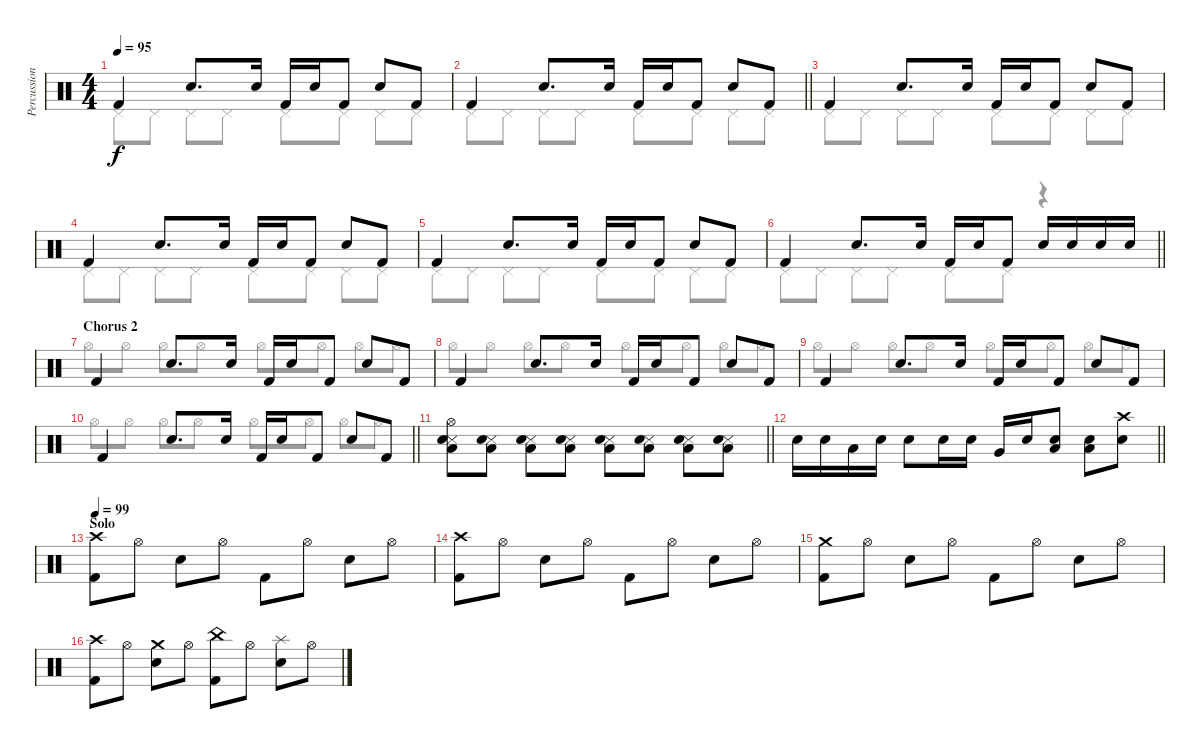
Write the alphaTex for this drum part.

\track ("Percussion" "Percussion") {instrument percussion}
\staff {score}
\articulation defaults
\voice
\ts (4 4)
\tempo 95
\clef neutral
\ks c "Kick (hit) 2".4{dy f} "Snare (hit) 2".8{d} "Snare (hit) 2".16 "Kick (hit) 2".16 "Snare (hit) 2".16 "Kick (hit) 2".8 "Snare (hit) 2".8 "Kick (hit) 2".8
|
\barLineRight lightlight "Kick (hit) 2".4 "Snare (hit) 2".8{d} "Snare (hit) 2".16 "Kick (hit) 2".16 "Snare (hit) 2".16 "Kick (hit) 2".8 "Snare (hit) 2".8 "Kick (hit) 2".8
|
"Kick (hit) 2".4 "Snare (hit) 2".8{d} "Snare (hit) 2".16 "Kick (hit) 2".16 "Snare (hit) 2".16 "Kick (hit) 2".8 "Snare (hit) 2".8 "Kick (hit) 2".8 |
"Kick (hit) 2".4 "Snare (hit) 2".8{d} "Snare (hit) 2".16 "Kick (hit) 2".16 "Snare (hit) 2".16 "Kick (hit) 2".8 "Snare (hit) 2".8 "Kick (hit) 2".8 |
"Kick (hit) 2".4 "Snare (hit) 2".8{d} "Snare (hit) 2".16 "Kick (hit) 2".16 "Snare (hit) 2".16 "Kick (hit) 2".8 "Snare (hit) 2".8 "Kick (hit) 2".8 |
\barLineRight lightlight "Kick (hit) 2".4 "Snare (hit) 2".8{d} "Snare (hit) 2".16 "Kick (hit) 2".16 "Snare (hit) 2".16 "Kick (hit) 2".8 "Snare (hit) 2".16 "Snare (hit) 2".16 "Snare (hit) 2".16 "Snare (hit) 2".16
|
\section ("" "Chorus 2")
"Kick (hit) 2".4 "Snare (hit) 2".8{d} "Snare (hit) 2".16 "Kick (hit) 2".16 "Snare (hit) 2".16 "Kick (hit) 2".8 "Snare (hit) 2".8 "Kick (hit) 2".8 |
"Kick (hit) 2".4 "Snare (hit) 2".8{d} "Snare (hit) 2".16 "Kick (hit) 2".16 "Snare (hit) 2".16 "Kick (hit) 2".8 "Snare (hit) 2".8 "Kick (hit) 2".8 |
"Kick (hit) 2".4 "Snare (hit) 2".8{d} "Snare (hit) 2".16 "Kick (hit) 2".16 "Snare (hit) 2".16 "Kick (hit) 2".8 "Snare (hit) 2".8 "Kick (hit) 2".8 |
\barLineRight lightlight "Kick (hit) 2".4 "Snare (hit) 2".8{d} "Snare (hit) 2".16 "Kick (hit) 2".16 "Snare (hit) 2".16 "Kick (hit) 2".8 "Snare (hit) 2".8 "Kick (hit) 2".8
|
\barLineRight lightlight
("Snare (side stick) 3" "Snare (hit) 2" "Low Floor Tom (hit)" "Hi-Hat (open)").8 ("Snare (side stick) 3" "Snare (hit) 2" "Low Floor Tom (hit)").8 ("Snare (side stick) 3" "Snare (hit) 2" "Low Floor Tom (hit)").8 ("Snare (side stick) 3" "Snare (hit) 2" "Low Floor Tom (hit)").8 ("Snare (side stick) 3" "Snare (hit) 2" "Low Floor Tom (hit)").8 ("Snare (side stick) 3" "Snare (hit) 2" "Low Floor Tom (hit)").8 ("Snare (side stick) 3" "Snare (hit) 2" "Low Floor Tom (hit)").8 ("Snare (side stick) 3" "Snare (hit) 2" "Low Floor Tom (hit)").8 |
\barLineRight lightlight "Snare (hit) 2".16 "Snare (hit) 2".16 "Low Floor Tom (hit)".16{balance 13} "Snare (hit) 2".16 "Snare (hit) 2".8 "Snare (hit) 2".16 "Snare (hit) 2".16 "Very Low Tom (hit)".16{balance 3} "Snare (hit) 2".16
("Snare (hit) 2" "Low Tom (hit)").8{balance 13} ("Snare (hit) 2" "Low Tom (hit)").8{balance 3} ("Snare (hit) 2" "Crash high (hit)").8 |
\section ("" "Solo")
\tempo 99
("Kick (hit) 2" "Crash high (hit)").8 "Hi-Hat (open)".8 "Snare (hit) 2".8 "Hi-Hat (open)".8 "Kick (hit) 2".8 "Hi-Hat (open)".8 "Snare (hit) 2".8 "Hi-Hat (open)".8 |
("Kick (hit) 2" "Crash high (hit)").8 "Hi-Hat (open)".8 "Snare (hit) 2".8 "Hi-Hat (open)".8 "Kick (hit) 2".8 "Hi-Hat (open)".8 "Snare (hit) 2".8 "Hi-Hat (open)".8 |
("Kick (hit) 2" "Crash medium (hit)").8 "Hi-Hat (open)".8 "Snare (hit) 2".8 "Hi-Hat (open)".8 "Kick (hit) 2".8 "Hi-Hat (open)".8 "Snare (hit) 2".8 "Hi-Hat (open)".8 |
("Kick (hit) 2" "Crash high (hit)").8 "Hi-Hat (open)".8 ("Snare (hit) 2" "Crash medium (hit)").8 "Hi-Hat (open)".8 ("Kick (hit) 2" "China (hit)").8 "Hi-Hat (open)".8 ("Snare (hit) 2" "Splash (hit)").8 "Hi-Hat (open)".8
\voice
\clef neutral
\ottava regular
\simile none
\ks c "Pedal Hi-Hat (hit)".8{dy f} "Pedal Hi-Hat (hit)".8 "Pedal Hi-Hat (hit)".8 "Pedal Hi-Hat (hit)".8 "Pedal Hi-Hat (hit)".8 "Pedal Hi-Hat (hit)".8 "Pedal Hi-Hat (hit)".8 "Pedal Hi-Hat (hit)".8
|
\barLineRight lightlight "Pedal Hi-Hat (hit)".8 "Pedal Hi-Hat (hit)".8 "Pedal Hi-Hat (hit)".8 "Pedal Hi-Hat (hit)".8 "Pedal Hi-Hat (hit)".8 "Pedal Hi-Hat (hit)".8 "Pedal Hi-Hat (hit)".8 "Pedal Hi-Hat (hit)".8
|
"Pedal Hi-Hat (hit)".8 "Pedal Hi-Hat (hit)".8 "Pedal Hi-Hat (hit)".8 "Pedal Hi-Hat (hit)".8 "Pedal Hi-Hat (hit)".8 "Pedal Hi-Hat (hit)".8 "Pedal Hi-Hat (hit)".8 "Pedal Hi-Hat (hit)".8 |
"Pedal Hi-Hat (hit)".8 "Pedal Hi-Hat (hit)".8 "Pedal Hi-Hat (hit)".8 "Pedal Hi-Hat (hit)".8 "Pedal Hi-Hat (hit)".8 "Pedal Hi-Hat (hit)".8 "Pedal Hi-Hat (hit)".8 "Pedal Hi-Hat (hit)".8 |
"Pedal Hi-Hat (hit)".8 "Pedal Hi-Hat (hit)".8 "Pedal Hi-Hat (hit)".8 "Pedal Hi-Hat (hit)".8 "Pedal Hi-Hat (hit)".8 "Pedal Hi-Hat (hit)".8 "Pedal Hi-Hat (hit)".8 "Pedal Hi-Hat (hit)".8 |
\barLineRight lightlight "Pedal Hi-Hat (hit)".8 "Pedal Hi-Hat (hit)".8 "Pedal Hi-Hat (hit)".8 "Pedal Hi-Hat (hit)".8 "Pedal Hi-Hat (hit)".8 "Pedal Hi-Hat (hit)".8
r.4 |
"Hi-Hat (open)".8 "Hi-Hat (open)".8 "Hi-Hat (open)".8 "Hi-Hat (open)".8 "Hi-Hat (open)".8 "Hi-Hat (open)".8 "Hi-Hat (open)".8 "Hi-Hat (open)".8 |
"Hi-Hat (open)".8 "Hi-Hat (open)".8 "Hi-Hat (open)".8 "Hi-Hat (open)".8 "Hi-Hat (open)".8 "Hi-Hat (open)".8 "Hi-Hat (open)".8 "Hi-Hat (open)".8 |
"Hi-Hat (open)".8 "Hi-Hat (open)".8 "Hi-Hat (open)".8 "Hi-Hat (open)".8 "Hi-Hat (open)".8 "Hi-Hat (open)".8 "Hi-Hat (open)".8 "Hi-Hat (open)".8 |
\barLineRight lightlight "Hi-Hat (open)".8 "Hi-Hat (open)".8 "Hi-Hat (open)".8 "Hi-Hat (open)".8 "Hi-Hat (open)".8 "Hi-Hat (open)".8 "Hi-Hat (open)".8 "Hi-Hat (open)".8
|
\barLineRight lightlight
|
\barLineRight lightlight
|
|
|
|
